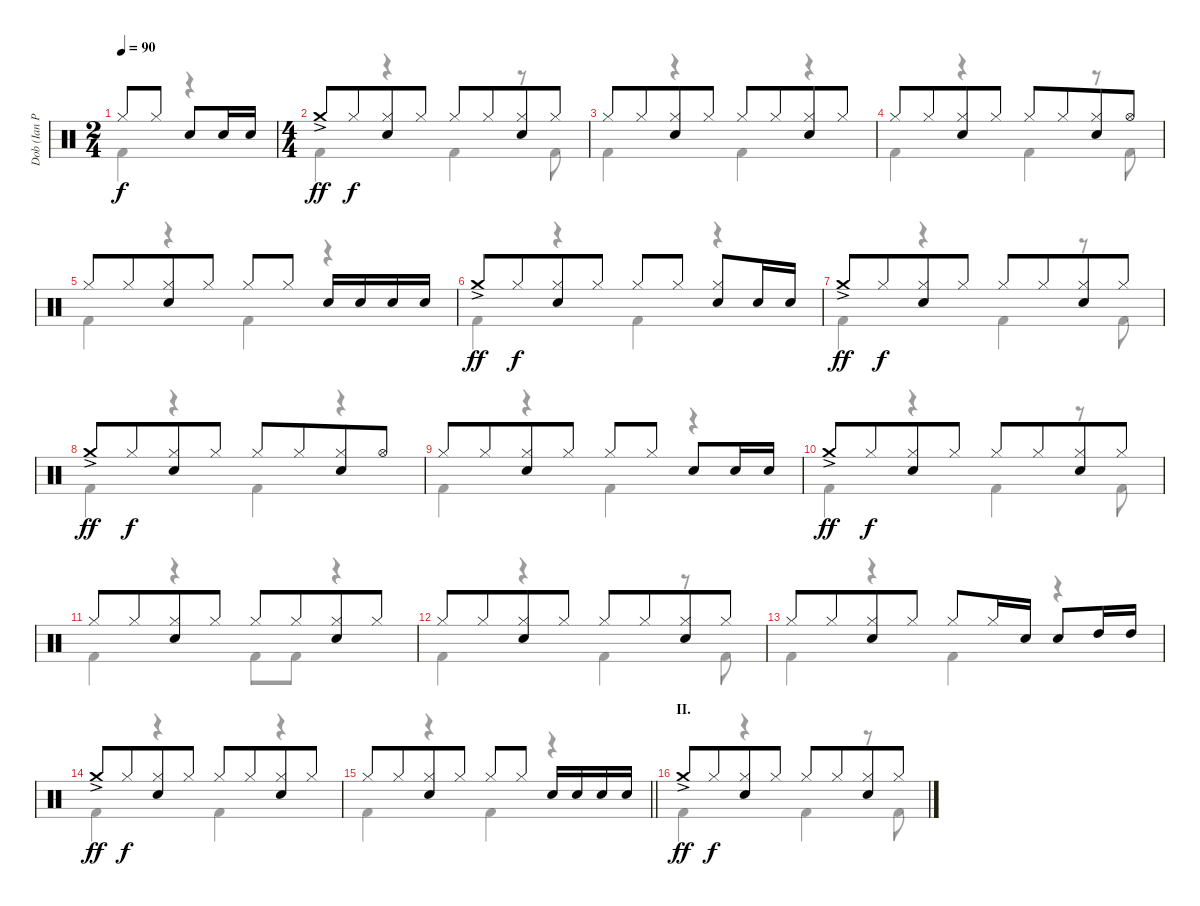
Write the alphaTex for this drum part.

\track ("Dob (Ian Paice)" "Dob (Ian P") {instrument percussion}
\staff {score}
\articulation defaults
\voice
\ts (2 4)
\tempo 90
\clef neutral
\ks c "Hi-Hat (closed)".8{dy f} "Hi-Hat (closed)".8 "Electric Snare (hit)".8 "Electric Snare (hit)".16 "Electric Snare (hit)".16
|
\ts (4 4)
"Crash medium (hit)"{ac}.8{dy ff} "Hi-Hat (closed)".8{dy f beam merge} ("Hi-Hat (closed)" "Electric Snare (hit)").8 "Hi-Hat (closed)".8 "Hi-Hat (closed)".8 "Hi-Hat (closed)".8{beam merge} ("Hi-Hat (closed)" "Electric Snare (hit)").8 "Hi-Hat (closed)".8 |
"Hi-Hat (closed)".8 "Hi-Hat (closed)".8{beam merge} ("Hi-Hat (closed)" "Electric Snare (hit)").8 "Hi-Hat (closed)".8 "Hi-Hat (closed)".8 "Hi-Hat (closed)".8{beam merge} ("Hi-Hat (closed)" "Electric Snare (hit)").8 "Hi-Hat (closed)".8 |
"Hi-Hat (closed)".8 "Hi-Hat (closed)".8{beam merge} ("Hi-Hat (closed)" "Electric Snare (hit)").8 "Hi-Hat (closed)".8 "Hi-Hat (closed)".8 "Hi-Hat (closed)".8{beam merge} ("Hi-Hat (closed)" "Electric Snare (hit)").8 "Hi-Hat (open)".8 |
"Hi-Hat (closed)".8 "Hi-Hat (closed)".8{beam merge} ("Hi-Hat (closed)" "Electric Snare (hit)").8 "Hi-Hat (closed)".8 "Hi-Hat (closed)".8 "Hi-Hat (closed)".8 "Electric Snare (hit)".16 "Electric Snare (hit)".16 "Electric Snare (hit)".16 "Electric Snare (hit)".16 |
"Crash medium (hit)"{ac}.8{dy ff} "Hi-Hat (closed)".8{dy f beam merge} ("Hi-Hat (closed)" "Electric Snare (hit)").8 "Hi-Hat (closed)".8 "Hi-Hat (closed)".8 "Hi-Hat (closed)".8 ("Hi-Hat (closed)" "Electric Snare (hit)").8 "Electric Snare (hit)".16 "Electric Snare (hit)".16 |
"Crash medium (hit)"{ac}.8{dy ff} "Hi-Hat (closed)".8{dy f beam merge} ("Hi-Hat (closed)" "Electric Snare (hit)").8 "Hi-Hat (closed)".8 "Hi-Hat (closed)".8 "Hi-Hat (closed)".8{beam merge} ("Hi-Hat (closed)" "Electric Snare (hit)").8 "Hi-Hat (closed)".8 |
"Crash medium (hit)"{ac}.8{dy ff} "Hi-Hat (closed)".8{dy f beam merge} ("Hi-Hat (closed)" "Electric Snare (hit)").8 "Hi-Hat (closed)".8 "Hi-Hat (closed)".8 "Hi-Hat (closed)".8{beam merge} ("Hi-Hat (closed)" "Electric Snare (hit)").8 "Hi-Hat (open)".8 |
"Hi-Hat (closed)".8 "Hi-Hat (closed)".8{beam merge} ("Hi-Hat (closed)" "Electric Snare (hit)").8 "Hi-Hat (closed)".8 "Hi-Hat (closed)".8 "Hi-Hat (closed)".8 "Electric Snare (hit)".8 "Electric Snare (hit)".16 "Electric Snare (hit)".16 |
"Crash medium (hit)"{ac}.8{dy ff} "Hi-Hat (closed)".8{dy f beam merge} ("Hi-Hat (closed)" "Electric Snare (hit)").8 "Hi-Hat (closed)".8 "Hi-Hat (closed)".8 "Hi-Hat (closed)".8{beam merge} ("Hi-Hat (closed)" "Electric Snare (hit)").8 "Hi-Hat (closed)".8 |
"Hi-Hat (closed)".8 "Hi-Hat (closed)".8{beam merge} ("Hi-Hat (closed)" "Electric Snare (hit)").8 "Hi-Hat (closed)".8 "Hi-Hat (closed)".8 "Hi-Hat (closed)".8{beam merge} ("Hi-Hat (closed)" "Electric Snare (hit)").8 "Hi-Hat (closed)".8 |
"Hi-Hat (closed)".8 "Hi-Hat (closed)".8{beam merge} ("Hi-Hat (closed)" "Electric Snare (hit)").8 "Hi-Hat (closed)".8 "Hi-Hat (closed)".8 "Hi-Hat (closed)".8{beam merge} ("Hi-Hat (closed)" "Electric Snare (hit)").8 "Hi-Hat (closed)".8 |
"Hi-Hat (closed)".8 "Hi-Hat (closed)".8{beam merge} ("Hi-Hat (closed)" "Electric Snare (hit)").8 "Hi-Hat (closed)".8 "Hi-Hat (closed)".8 "Hi-Hat (closed)".16 "Electric Snare (hit)".16 "Electric Snare (hit)".8 "High Tom (hit)".16 "High Tom (hit)".16 |
"Crash medium (hit)"{ac}.8{dy ff} "Hi-Hat (closed)".8{dy f beam merge} ("Hi-Hat (closed)" "Electric Snare (hit)").8 "Hi-Hat (closed)".8 "Hi-Hat (closed)".8 "Hi-Hat (closed)".8{beam merge} ("Hi-Hat (closed)" "Electric Snare (hit)").8 "Hi-Hat (closed)".8 |
\barLineRight lightlight "Hi-Hat (closed)".8 "Hi-Hat (closed)".8{beam merge}
("Hi-Hat (closed)" "Electric Snare (hit)").8 "Hi-Hat (closed)".8 "Hi-Hat (closed)".8 "Hi-Hat (closed)".8 "Electric Snare (hit)".16 "Electric Snare (hit)".16 "Electric Snare (hit)".16 "Electric Snare (hit)".16 |
\section ("" "II.")
"Crash medium (hit)"{ac}.8{dy ff} "Hi-Hat (closed)".8{dy f beam merge} ("Hi-Hat (closed)" "Electric Snare (hit)").8 "Hi-Hat (closed)".8 "Hi-Hat (closed)".8 "Hi-Hat (closed)".8{beam merge} ("Hi-Hat (closed)" "Electric Snare (hit)").8 "Hi-Hat (closed)".8
\voice
\clef neutral
\ottava regular
\simile none
\ks c "Kick (hit) 2".4{dy f}
r.4 |
"Kick (hit) 2".4 r.4 "Kick (hit) 2".4 r.8 "Kick (hit) 2".8 |
"Kick (hit) 2".4 r.4 "Kick (hit) 2".4 r.4 |
"Kick (hit) 2".4 r.4 "Kick (hit) 2".4 r.8 "Kick (hit) 2".8 |
"Kick (hit) 2".4 r.4 "Kick (hit) 2".4 r.4 |
"Kick (hit) 2".4 r.4 "Kick (hit) 2".4 r.4 |
"Kick (hit) 2".4 r.4 "Kick (hit) 2".4 r.8 "Kick (hit) 2".8 |
"Kick (hit) 2".4 r.4 "Kick (hit) 2".4 r.4 |
"Kick (hit) 2".4 r.4 "Kick (hit) 2".4 r.4 |
"Kick (hit) 2".4 r.4 "Kick (hit) 2".4 r.8 "Kick (hit) 2".8 |
"Kick (hit) 2".4 r.4 "Kick (hit) 2".8 "Kick (hit) 2".8 r.4 |
"Kick (hit) 2".4 r.4 "Kick (hit) 2".4 r.8 "Kick (hit) 2".8 |
"Kick (hit) 2".4 r.4 "Kick (hit) 2".4 r.4 |
"Kick (hit) 2".4 r.4 "Kick (hit) 2".4 r.4 |
\barLineRight lightlight "Kick (hit) 2".4
r.4 "Kick (hit) 2".4 r.4 |
"Kick (hit) 2".4 r.4 "Kick (hit) 2".4 r.8 "Kick (hit) 2".8
